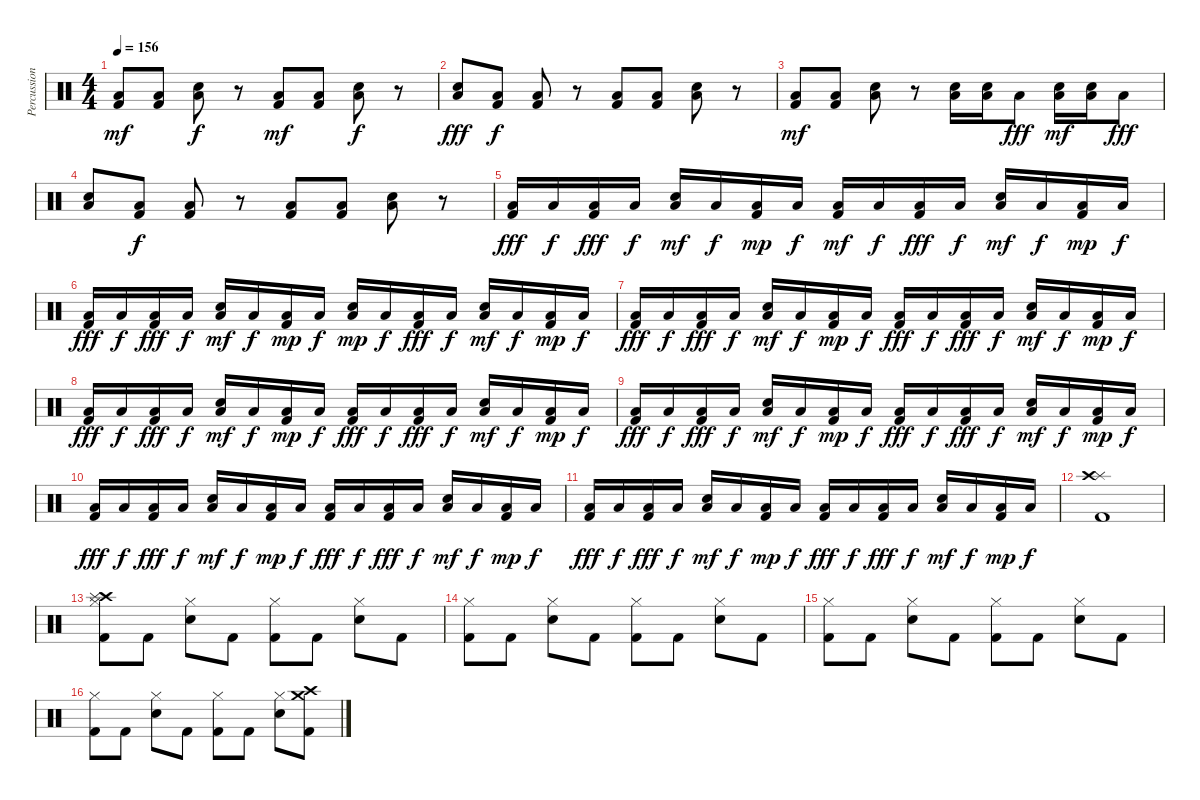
\track ("Percussion" "Percussion") {instrument percussion}
\staff {score}
\articulation defaults
\ts (4 4)
\tempo 156
\clef neutral
\ks c
("Low Floor Tom (hit)" "Kick (hit) 2").8{dy mf} ("Low Floor Tom (hit)" "Kick (hit) 2").8 ("Low Floor Tom (hit)" "Electric Snare (hit)").8{dy f} r.8 ("Low Floor Tom (hit)" "Kick (hit) 2").8{dy mf} ("Low Floor Tom (hit)" "Kick (hit) 2").8 ("Low Floor Tom (hit)" "Electric Snare (hit)").8{dy f} r.8 |
("Low Floor Tom (hit)" "Electric Snare (hit)").8{dy fff} ("Low Floor Tom (hit)" "Kick (hit) 2").8{dy f} ("Low Floor Tom (hit)" "Kick (hit) 2").8 r.8 ("Low Floor Tom (hit)" "Kick (hit) 2").8 ("Low Floor Tom (hit)" "Kick (hit) 2").8 ("Low Floor Tom (hit)" "Electric Snare (hit)").8 r.8 |
("Low Floor Tom (hit)" "Kick (hit) 2").8{dy mf} ("Low Floor Tom (hit)" "Kick (hit) 2").8 ("Low Floor Tom (hit)" "Electric Snare (hit)").8 r.8 ("Low Floor Tom (hit)" "Electric Snare (hit)").16 ("Low Floor Tom (hit)" "Electric Snare (hit)").16 "Low Floor Tom (hit)".8{dy fff} ("Low Floor Tom (hit)" "Electric Snare (hit)").16{dy mf} ("Low Floor Tom (hit)" "Electric Snare (hit)").16 "Low Floor Tom (hit)".8{dy fff} |
("Low Floor Tom (hit)" "Electric Snare (hit)").8 ("Low Floor Tom (hit)" "Kick (hit) 2").8{dy f} ("Low Floor Tom (hit)" "Kick (hit) 2").8 r.8 ("Low Floor Tom (hit)" "Kick (hit) 2").8 ("Low Floor Tom (hit)" "Kick (hit) 2").8 ("Low Floor Tom (hit)" "Electric Snare (hit)").8 r.8 |
("Low Floor Tom (hit)" "Kick (hit) 2").16{dy fff} "Low Floor Tom (hit)".16{dy f} ("Low Floor Tom (hit)" "Kick (hit) 2").16{dy fff} "Low Floor Tom (hit)".16{dy f} ("Low Floor Tom (hit)" "Electric Snare (hit)").16{dy mf} "Low Floor Tom (hit)".16{dy f} ("Low Floor Tom (hit)" "Kick (hit) 2").16{dy mp} "Low Floor Tom (hit)".16{dy f} ("Low Floor Tom (hit)" "Kick (hit) 2").16{dy mf} "Low Floor Tom (hit)".16{dy f} ("Low Floor Tom (hit)" "Kick (hit) 2").16{dy fff} "Low Floor Tom (hit)".16{dy f} ("Low Floor Tom (hit)" "Electric Snare (hit)").16{dy mf} "Low Floor Tom (hit)".16{dy f} ("Low Floor Tom (hit)" "Kick (hit) 2").16{dy mp} "Low Floor Tom (hit)".16{dy f} |
("Low Floor Tom (hit)" "Kick (hit) 2").16{dy fff} "Low Floor Tom (hit)".16{dy f} ("Low Floor Tom (hit)" "Kick (hit) 2").16{dy fff} "Low Floor Tom (hit)".16{dy f} ("Low Floor Tom (hit)" "Electric Snare (hit)").16{dy mf} "Low Floor Tom (hit)".16{dy f} ("Low Floor Tom (hit)" "Kick (hit) 2").16{dy mp} "Low Floor Tom (hit)".16{dy f} ("Low Floor Tom (hit)" "Electric Snare (hit)").16{dy mp} "Low Floor Tom (hit)".16{dy f} ("Low Floor Tom (hit)" "Kick (hit) 2").16{dy fff} "Low Floor Tom (hit)".16{dy f} ("Low Floor Tom (hit)" "Electric Snare (hit)").16{dy mf} "Low Floor Tom (hit)".16{dy f} ("Low Floor Tom (hit)" "Kick (hit) 2").16{dy mp} "Low Floor Tom (hit)".16{dy f} |
("Low Floor Tom (hit)" "Kick (hit) 2").16{dy fff} "Low Floor Tom (hit)".16{dy f} ("Low Floor Tom (hit)" "Kick (hit) 2").16{dy fff} "Low Floor Tom (hit)".16{dy f} ("Low Floor Tom (hit)" "Electric Snare (hit)").16{dy mf} "Low Floor Tom (hit)".16{dy f} ("Low Floor Tom (hit)" "Kick (hit) 2").16{dy mp} "Low Floor Tom (hit)".16{dy f} ("Low Floor Tom (hit)" "Kick (hit) 2").16{dy fff} "Low Floor Tom (hit)".16{dy f} ("Low Floor Tom (hit)" "Kick (hit) 2").16{dy fff} "Low Floor Tom (hit)".16{dy f} ("Low Floor Tom (hit)" "Electric Snare (hit)").16{dy mf} "Low Floor Tom (hit)".16{dy f} ("Low Floor Tom (hit)" "Kick (hit) 2").16{dy mp} "Low Floor Tom (hit)".16{dy f} |
("Low Floor Tom (hit)" "Kick (hit) 2").16{dy fff} "Low Floor Tom (hit)".16{dy f} ("Low Floor Tom (hit)" "Kick (hit) 2").16{dy fff} "Low Floor Tom (hit)".16{dy f} ("Low Floor Tom (hit)" "Electric Snare (hit)").16{dy mf} "Low Floor Tom (hit)".16{dy f} ("Low Floor Tom (hit)" "Kick (hit) 2").16{dy mp} "Low Floor Tom (hit)".16{dy f} ("Low Floor Tom (hit)" "Kick (hit) 2").16{dy fff} "Low Floor Tom (hit)".16{dy f} ("Low Floor Tom (hit)" "Kick (hit) 2").16{dy fff} "Low Floor Tom (hit)".16{dy f} ("Low Floor Tom (hit)" "Electric Snare (hit)").16{dy mf} "Low Floor Tom (hit)".16{dy f} ("Low Floor Tom (hit)" "Kick (hit) 2").16{dy mp} "Low Floor Tom (hit)".16{dy f} |
("Low Floor Tom (hit)" "Kick (hit) 2").16{dy fff} "Low Floor Tom (hit)".16{dy f} ("Low Floor Tom (hit)" "Kick (hit) 2").16{dy fff} "Low Floor Tom (hit)".16{dy f} ("Low Floor Tom (hit)" "Electric Snare (hit)").16{dy mf} "Low Floor Tom (hit)".16{dy f} ("Low Floor Tom (hit)" "Kick (hit) 2").16{dy mp} "Low Floor Tom (hit)".16{dy f} ("Low Floor Tom (hit)" "Kick (hit) 2").16{dy fff} "Low Floor Tom (hit)".16{dy f} ("Low Floor Tom (hit)" "Kick (hit) 2").16{dy fff} "Low Floor Tom (hit)".16{dy f} ("Low Floor Tom (hit)" "Electric Snare (hit)").16{dy mf} "Low Floor Tom (hit)".16{dy f} ("Low Floor Tom (hit)" "Kick (hit) 2").16{dy mp} "Low Floor Tom (hit)".16{dy f} |
("Low Floor Tom (hit)" "Kick (hit) 2").16{dy fff} "Low Floor Tom (hit)".16{dy f} ("Low Floor Tom (hit)" "Kick (hit) 2").16{dy fff} "Low Floor Tom (hit)".16{dy f} ("Low Floor Tom (hit)" "Electric Snare (hit)").16{dy mf} "Low Floor Tom (hit)".16{dy f} ("Low Floor Tom (hit)" "Kick (hit) 2").16{dy mp} "Low Floor Tom (hit)".16{dy f} ("Low Floor Tom (hit)" "Kick (hit) 2").16{dy fff} "Low Floor Tom (hit)".16{dy f} ("Low Floor Tom (hit)" "Kick (hit) 2").16{dy fff} "Low Floor Tom (hit)".16{dy f} ("Low Floor Tom (hit)" "Electric Snare (hit)").16{dy mf} "Low Floor Tom (hit)".16{dy f} ("Low Floor Tom (hit)" "Kick (hit) 2").16{dy mp} "Low Floor Tom (hit)".16{dy f} |
("Low Floor Tom (hit)" "Kick (hit) 2").16{dy fff} "Low Floor Tom (hit)".16{dy f} ("Low Floor Tom (hit)" "Kick (hit) 2").16{dy fff} "Low Floor Tom (hit)".16{dy f} ("Low Floor Tom (hit)" "Electric Snare (hit)").16{dy mf} "Low Floor Tom (hit)".16{dy f} ("Low Floor Tom (hit)" "Kick (hit) 2").16{dy mp} "Low Floor Tom (hit)".16{dy f} ("Low Floor Tom (hit)" "Kick (hit) 2").16{dy fff} "Low Floor Tom (hit)".16{dy f} ("Low Floor Tom (hit)" "Kick (hit) 2").16{dy fff} "Low Floor Tom (hit)".16{dy f} ("Low Floor Tom (hit)" "Electric Snare (hit)").16{dy mf} "Low Floor Tom (hit)".16{dy f} ("Low Floor Tom (hit)" "Kick (hit) 2").16{dy mp} "Low Floor Tom (hit)".16{dy f} |
("Splash (hit)" "Crash high (hit)" "Kick (hit) 2").1 |
("Crash high (hit)" "Splash (hit)" "Hi-Hat (closed)" "Kick (hit) 2").8 "Kick (hit) 2".8 ("Hi-Hat (closed)" "Electric Snare (hit)").8 "Kick (hit) 2".8 ("Hi-Hat (closed)" "Kick (hit) 2").8 "Kick (hit) 2".8 ("Hi-Hat (closed)" "Electric Snare (hit)").8 "Kick (hit) 2".8 |
("Hi-Hat (closed)" "Kick (hit) 2").8 "Kick (hit) 2".8 ("Hi-Hat (closed)" "Electric Snare (hit)").8 "Kick (hit) 2".8 ("Hi-Hat (closed)" "Kick (hit) 2").8 "Kick (hit) 2".8 ("Hi-Hat (closed)" "Electric Snare (hit)").8 "Kick (hit) 2".8 |
("Hi-Hat (closed)" "Kick (hit) 2").8 "Kick (hit) 2".8 ("Hi-Hat (closed)" "Electric Snare (hit)").8 "Kick (hit) 2".8 ("Hi-Hat (closed)" "Kick (hit) 2").8 "Kick (hit) 2".8 ("Hi-Hat (closed)" "Electric Snare (hit)").8 "Kick (hit) 2".8 |
("Hi-Hat (closed)" "Kick (hit) 2").8 "Kick (hit) 2".8 ("Hi-Hat (closed)" "Electric Snare (hit)").8 "Kick (hit) 2".8 ("Hi-Hat (closed)" "Kick (hit) 2").8 "Kick (hit) 2".8 ("Hi-Hat (closed)" "Electric Snare (hit)").8 ("Crash medium (hit)" "Crash high (hit)" "Kick (hit) 2").8
